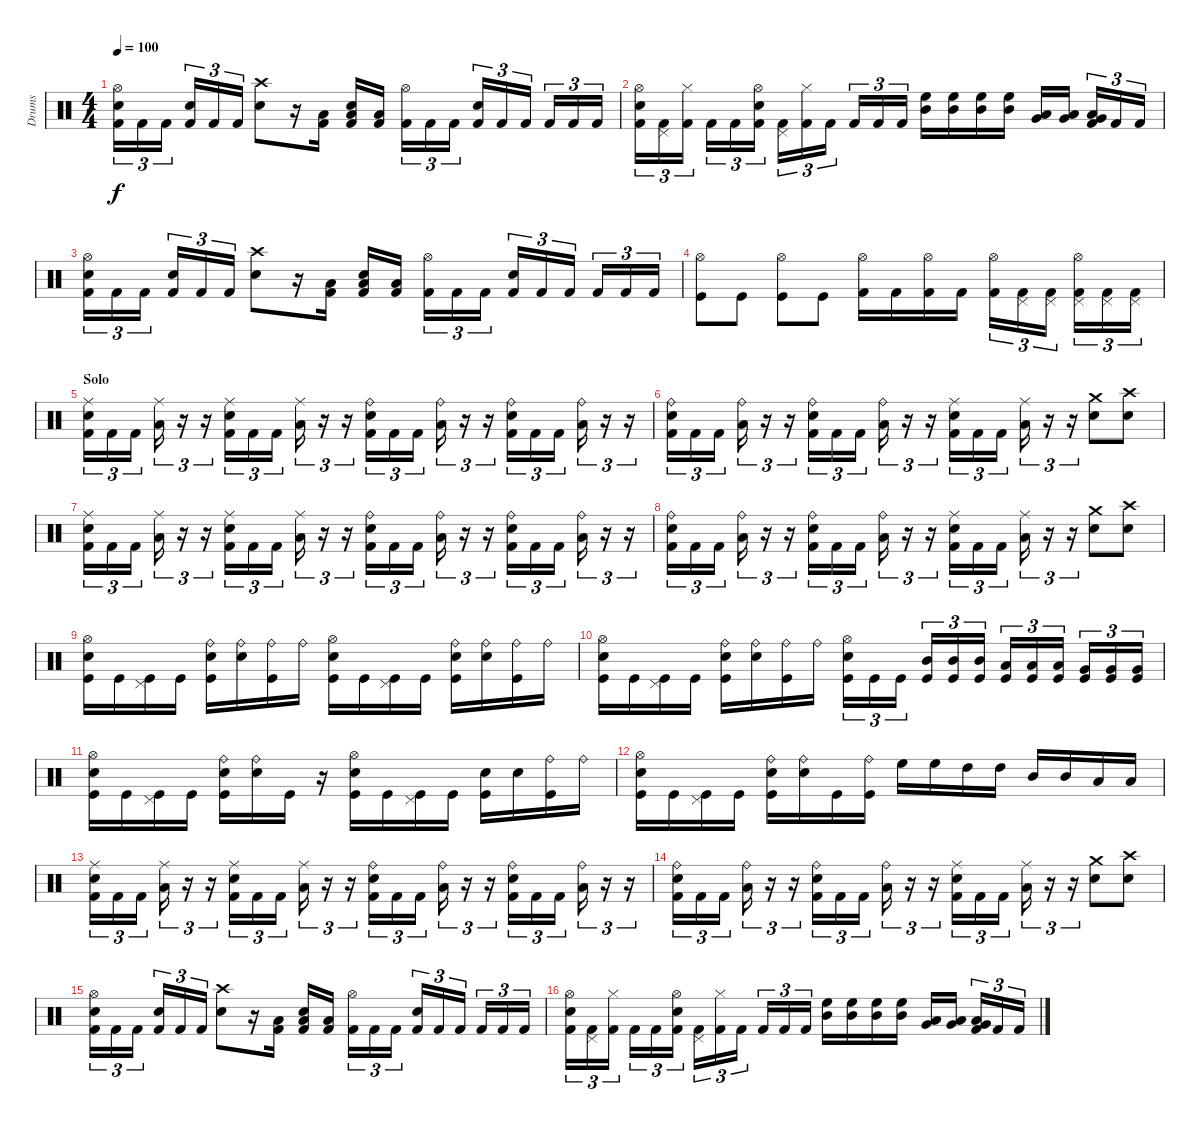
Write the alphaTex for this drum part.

\track ("Drums" "Drums") {instrument percussion}
\staff {score}
\articulation defaults
\ts (4 4)
\tempo 100
\clef neutral
\ks c
("Hi-Hat (open)" "Snare (hit) 2" "Kick (hit) 2").16{tu (3 2) dy f} "Kick (hit) 2".16{tu (3 2)} "Kick (hit) 2".16{tu (3 2)} ("Snare (hit) 2" "Kick (hit) 2").16{tu (3 2)} "Kick (hit) 2".16{tu (3 2)} "Kick (hit) 2".16{tu (3 2)} ("Crash high (hit)" "Snare (hit) 2").8 r.16 ("Low Tom (hit)" "Kick (hit) 2").16 ("Low Tom (hit)" "Snare (hit) 2" "Kick (hit) 2").16 ("Low Tom (hit)" "Kick (hit) 2").16 ("Hi-Hat (open)" "Kick (hit) 2").16{tu (3 2)} "Kick (hit) 2".16{tu (3 2)} "Kick (hit) 2".16{tu (3 2)} ("Snare (hit) 2" "Kick (hit) 2").16{tu (3 2)} "Kick (hit) 2".16{tu (3 2)} "Kick (hit) 2".16{tu (3 2)} "Kick (hit) 2".16{tu (3 2)} "Kick (hit) 2".16{tu (3 2)} "Kick (hit) 2".16{tu (3 2)} |
("Hi-Hat (open)" "Snare (hit) 2" "Kick (hit) 2").16{tu (3 2)} ("Pedal Hi-Hat (hit)" "Kick (hit) 2").16{tu (3 2)} ("Hi-Hat (closed)" "Kick (hit) 2").16{tu (3 2)} "Kick (hit) 2".16{tu (3 2)} "Kick (hit) 2".16{tu (3 2)} ("Hi-Hat (open)" "Snare (hit) 2" "Kick (hit) 2").16{tu (3 2)} ("Pedal Hi-Hat (hit)" "Kick (hit) 2").16{tu (3 2)} ("Hi-Hat (closed)" "Kick (hit) 2").16{tu (3 2)} "Kick (hit) 2".16{tu (3 2)} "Kick (hit) 2".16{tu (3 2)} "Kick (hit) 2".16{tu (3 2)} "Kick (hit) 2".16{tu (3 2)} ("High Floor Tom (hit)" "Mid Tom (hit)").16 ("High Floor Tom (hit)" "Mid Tom (hit)").16 ("High Floor Tom (hit)" "Mid Tom (hit)").16 ("High Floor Tom (hit)" "Mid Tom (hit)").16 ("Low Tom (hit)" "Very Low Tom (hit)").16 ("Low Tom (hit)" "Very Low Tom (hit)").16 ("Low Tom (hit)" "Very Low Tom (hit)" "Kick (hit) 2").16{tu (3 2)} "Kick (hit) 2".16{tu (3 2)} "Kick (hit) 2".16{tu (3 2)} |
("Hi-Hat (open)" "Snare (hit) 2" "Kick (hit) 2").16{tu (3 2)} "Kick (hit) 2".16{tu (3 2)} "Kick (hit) 2".16{tu (3 2)} ("Snare (hit) 2" "Kick (hit) 2").16{tu (3 2)} "Kick (hit) 2".16{tu (3 2)} "Kick (hit) 2".16{tu (3 2)} ("Crash high (hit)" "Snare (hit) 2").8 r.16 ("Low Tom (hit)" "Kick (hit) 2").16 ("Low Tom (hit)" "Snare (hit) 2" "Kick (hit) 2").16 ("Low Tom (hit)" "Kick (hit) 2").16 ("Hi-Hat (open)" "Kick (hit) 2").16{tu (3 2)} "Kick (hit) 2".16{tu (3 2)} "Kick (hit) 2".16{tu (3 2)} ("Snare (hit) 2" "Kick (hit) 2").16{tu (3 2)} "Kick (hit) 2".16{tu (3 2)} "Kick (hit) 2".16{tu (3 2)} "Kick (hit) 2".16{tu (3 2)} "Kick (hit) 2".16{tu (3 2)} "Kick (hit) 2".16{tu (3 2)} |
("Hi-Hat (open)" "Kick (hit)").8 "Kick (hit)".8 ("Hi-Hat (open)" "Kick (hit)").8 "Kick (hit)".8 ("Hi-Hat (open)" "Kick (hit) 2").16 "Kick (hit) 2".16 ("Hi-Hat (open)" "Kick (hit) 2").16 "Kick (hit) 2".16 ("Hi-Hat (open)" "Kick (hit) 2").16{tu (3 2)} ("Pedal Hi-Hat (hit)" "Kick (hit) 2").16{tu (3 2)} ("Pedal Hi-Hat (hit)" "Kick (hit) 2").16{tu (3 2)} ("Hi-Hat (open)" "Pedal Hi-Hat (hit)" "Kick (hit) 2").16{tu (3 2)} ("Pedal Hi-Hat (hit)" "Kick (hit) 2").16{tu (3 2)} ("Pedal Hi-Hat (hit)" "Kick (hit) 2").16{tu (3 2)} |
\section ("" "Solo")
("Ride (middle)" "Snare (hit) 2" "Kick (hit) 2").16{tu (3 2)} "Kick (hit) 2".16{tu (3 2)} "Kick (hit) 2".16{tu (3 2)} ("Ride (middle)" "Low Floor Tom (hit)").16{tu (3 2)} r.16{tu (3 2)} r.16{tu (3 2)} ("Ride (middle)" "Snare (hit) 2" "Kick (hit) 2").16{tu (3 2)} "Kick (hit) 2".16{tu (3 2)} "Kick (hit) 2".16{tu (3 2)} ("Ride (middle)" "Low Floor Tom (hit)").16{tu (3 2)} r.16{tu (3 2)} r.16{tu (3 2)} ("Ride (bell)" "Snare (hit) 2" "Kick (hit) 2").16{tu (3 2)} "Kick (hit) 2".16{tu (3 2)} "Kick (hit) 2".16{tu (3 2)} ("Ride (bell)" "Low Floor Tom (hit)").16{tu (3 2)} r.16{tu (3 2)} r.16{tu (3 2)} ("Ride (bell)" "Snare (hit) 2" "Kick (hit) 2").16{tu (3 2)} "Kick (hit) 2".16{tu (3 2)} "Kick (hit) 2".16{tu (3 2)} ("Ride (bell)" "Low Floor Tom (hit)").16{tu (3 2)} r.16{tu (3 2)} r.16{tu (3 2)} |
("Ride (bell)" "Snare (hit) 2" "Kick (hit) 2").16{tu (3 2)} "Kick (hit) 2".16{tu (3 2)} "Kick (hit) 2".16{tu (3 2)} ("Ride (bell)" "Low Floor Tom (hit)").16{tu (3 2)} r.16{tu (3 2)} r.16{tu (3 2)} ("Ride (bell)" "Snare (hit) 2" "Kick (hit) 2").16{tu (3 2)} "Kick (hit) 2".16{tu (3 2)} "Kick (hit) 2".16{tu (3 2)} ("Ride (bell)" "Low Floor Tom (hit)").16{tu (3 2)} r.16{tu (3 2)} r.16{tu (3 2)} ("Ride (middle)" "Snare (hit) 2" "Kick (hit) 2").16{tu (3 2)} "Kick (hit) 2".16{tu (3 2)} "Kick (hit) 2".16{tu (3 2)} ("Ride (middle)" "Low Floor Tom (hit)").16{tu (3 2)} r.16{tu (3 2)} r.16{tu (3 2)} ("Crash medium (hit)" "Snare (hit) 2").8 ("Crash high (hit)" "Snare (hit) 2").8 |
("Ride (middle)" "Snare (hit) 2" "Kick (hit) 2").16{tu (3 2)} "Kick (hit) 2".16{tu (3 2)} "Kick (hit) 2".16{tu (3 2)} ("Ride (middle)" "Low Floor Tom (hit)").16{tu (3 2)} r.16{tu (3 2)} r.16{tu (3 2)} ("Ride (middle)" "Snare (hit) 2" "Kick (hit) 2").16{tu (3 2)} "Kick (hit) 2".16{tu (3 2)} "Kick (hit) 2".16{tu (3 2)} ("Ride (middle)" "Low Floor Tom (hit)").16{tu (3 2)} r.16{tu (3 2)} r.16{tu (3 2)} ("Ride (bell)" "Snare (hit) 2" "Kick (hit) 2").16{tu (3 2)} "Kick (hit) 2".16{tu (3 2)} "Kick (hit) 2".16{tu (3 2)} ("Ride (bell)" "Low Floor Tom (hit)").16{tu (3 2)} r.16{tu (3 2)} r.16{tu (3 2)} ("Ride (bell)" "Snare (hit) 2" "Kick (hit) 2").16{tu (3 2)} "Kick (hit) 2".16{tu (3 2)} "Kick (hit) 2".16{tu (3 2)} ("Ride (bell)" "Low Floor Tom (hit)").16{tu (3 2)} r.16{tu (3 2)} r.16{tu (3 2)} |
("Ride (bell)" "Snare (hit) 2" "Kick (hit) 2").16{tu (3 2)} "Kick (hit) 2".16{tu (3 2)} "Kick (hit) 2".16{tu (3 2)} ("Ride (bell)" "Low Floor Tom (hit)").16{tu (3 2)} r.16{tu (3 2)} r.16{tu (3 2)} ("Ride (bell)" "Snare (hit) 2" "Kick (hit) 2").16{tu (3 2)} "Kick (hit) 2".16{tu (3 2)} "Kick (hit) 2".16{tu (3 2)} ("Ride (bell)" "Low Floor Tom (hit)").16{tu (3 2)} r.16{tu (3 2)} r.16{tu (3 2)} ("Ride (middle)" "Snare (hit) 2" "Kick (hit) 2").16{tu (3 2)} "Kick (hit) 2".16{tu (3 2)} "Kick (hit) 2".16{tu (3 2)} ("Ride (middle)" "Low Floor Tom (hit)").16{tu (3 2)} r.16{tu (3 2)} r.16{tu (3 2)} ("Crash medium (hit)" "Snare (hit) 2").8 ("Crash high (hit)" "Snare (hit) 2").8 |
("Hi-Hat (open)" "Snare (hit) 2" "Kick (hit)").16 "Kick (hit)".16 ("Pedal Hi-Hat (hit)" "Kick (hit)").16 "Kick (hit)".16 ("Ride (bell)" "Snare (hit) 2" "Kick (hit)").16 ("Ride (bell)" "Snare (hit) 2").16 ("Ride (bell)" "Kick (hit)").16 "Ride (bell)".16 ("Hi-Hat (open)" "Snare (hit) 2" "Kick (hit)").16 "Kick (hit)".16 ("Pedal Hi-Hat (hit)" "Kick (hit)").16 "Kick (hit)".16 ("Ride (bell)" "Snare (hit) 2" "Kick (hit)").16 ("Ride (bell)" "Snare (hit) 2").16 ("Ride (bell)" "Kick (hit)").16 "Ride (bell)".16 |
("Hi-Hat (open)" "Snare (hit) 2" "Kick (hit)").16 "Kick (hit)".16 ("Pedal Hi-Hat (hit)" "Kick (hit)").16 "Kick (hit)".16 ("Ride (bell)" "Snare (hit) 2" "Kick (hit)").16 ("Ride (bell)" "Snare (hit) 2").16 ("Ride (bell)" "Kick (hit)").16 "Ride (bell)".16 ("Hi-Hat (open)" "Snare (hit) 2" "Kick (hit)").16{tu (3 2)} "Kick (hit)".16{tu (3 2)} "Kick (hit)".16{tu (3 2)} ("Mid Tom (hit)" "Kick (hit)").16{tu (3 2)} ("Mid Tom (hit)" "Kick (hit)").16{tu (3 2)} ("Mid Tom (hit)" "Kick (hit)").16{tu (3 2)} ("Low Tom (hit)" "Kick (hit)").16{tu (3 2)} ("Low Tom (hit)" "Kick (hit)").16{tu (3 2)} ("Low Tom (hit)" "Kick (hit)").16{tu (3 2)} ("Very Low Tom (hit)" "Kick (hit)").16{tu (3 2)} ("Very Low Tom (hit)" "Kick (hit)").16{tu (3 2)} ("Very Low Tom (hit)" "Kick (hit)").16{tu (3 2)} |
("Hi-Hat (open)" "Snare (hit) 2" "Kick (hit)").16 "Kick (hit)".16 ("Pedal Hi-Hat (hit)" "Kick (hit)").16 "Kick (hit)".16 ("Ride (bell)" "Snare (hit) 2" "Kick (hit)").16 ("Ride (bell)" "Snare (hit) 2").16 "Kick (hit)".16 r.16 ("Hi-Hat (open)" "Snare (hit) 2" "Kick (hit)").16 "Kick (hit)".16 ("Pedal Hi-Hat (hit)" "Kick (hit)").16 "Kick (hit)".16 ("Snare (hit) 2" "Kick (hit)").16 "Snare (hit) 2".16 ("Ride (bell)" "Kick (hit)").16 "Ride (bell)".16 |
("Hi-Hat (open)" "Snare (hit) 2" "Kick (hit)").16 "Kick (hit)".16 ("Pedal Hi-Hat (hit)" "Kick (hit)").16 "Kick (hit)".16 ("Ride (bell)" "Snare (hit) 2" "Kick (hit)").16 ("Ride (bell)" "Snare (hit) 2").16 "Kick (hit)".16 ("Ride (bell)" "Kick (hit)").16 "High Floor Tom (hit)".16 "High Floor Tom (hit)".16 "High Tom (hit)".16 "High Tom (hit)".16 "Mid Tom (hit)".16 "Mid Tom (hit)".16 "Low Tom (hit)".16 "Low Tom (hit)".16 |
("Ride (middle)" "Snare (hit) 2" "Kick (hit) 2").16{tu (3 2)} "Kick (hit) 2".16{tu (3 2)} "Kick (hit) 2".16{tu (3 2)} ("Ride (middle)" "Low Floor Tom (hit)").16{tu (3 2)} r.16{tu (3 2)} r.16{tu (3 2)} ("Ride (middle)" "Snare (hit) 2" "Kick (hit) 2").16{tu (3 2)} "Kick (hit) 2".16{tu (3 2)} "Kick (hit) 2".16{tu (3 2)} ("Ride (middle)" "Low Floor Tom (hit)").16{tu (3 2)} r.16{tu (3 2)} r.16{tu (3 2)} ("Ride (bell)" "Snare (hit) 2" "Kick (hit) 2").16{tu (3 2)} "Kick (hit) 2".16{tu (3 2)} "Kick (hit) 2".16{tu (3 2)} ("Ride (bell)" "Low Floor Tom (hit)").16{tu (3 2)} r.16{tu (3 2)} r.16{tu (3 2)} ("Ride (bell)" "Snare (hit) 2" "Kick (hit) 2").16{tu (3 2)} "Kick (hit) 2".16{tu (3 2)} "Kick (hit) 2".16{tu (3 2)} ("Ride (bell)" "Low Floor Tom (hit)").16{tu (3 2)} r.16{tu (3 2)} r.16{tu (3 2)} |
("Ride (bell)" "Snare (hit) 2" "Kick (hit) 2").16{tu (3 2)} "Kick (hit) 2".16{tu (3 2)} "Kick (hit) 2".16{tu (3 2)} ("Ride (bell)" "Low Floor Tom (hit)").16{tu (3 2)} r.16{tu (3 2)} r.16{tu (3 2)} ("Ride (bell)" "Snare (hit) 2" "Kick (hit) 2").16{tu (3 2)} "Kick (hit) 2".16{tu (3 2)} "Kick (hit) 2".16{tu (3 2)} ("Ride (bell)" "Low Floor Tom (hit)").16{tu (3 2)} r.16{tu (3 2)} r.16{tu (3 2)} ("Ride (middle)" "Snare (hit) 2" "Kick (hit) 2").16{tu (3 2)} "Kick (hit) 2".16{tu (3 2)} "Kick (hit) 2".16{tu (3 2)} ("Ride (middle)" "Low Floor Tom (hit)").16{tu (3 2)} r.16{tu (3 2)} r.16{tu (3 2)} ("Crash medium (hit)" "Snare (hit) 2").8 ("Crash high (hit)" "Snare (hit) 2").8 |
("Hi-Hat (open)" "Snare (hit) 2" "Kick (hit) 2").16{tu (3 2)} "Kick (hit) 2".16{tu (3 2)} "Kick (hit) 2".16{tu (3 2)} ("Snare (hit) 2" "Kick (hit) 2").16{tu (3 2)} "Kick (hit) 2".16{tu (3 2)} "Kick (hit) 2".16{tu (3 2)} ("Crash high (hit)" "Snare (hit) 2").8 r.16 ("Low Tom (hit)" "Kick (hit) 2").16 ("Low Tom (hit)" "Snare (hit) 2" "Kick (hit) 2").16 ("Low Tom (hit)" "Kick (hit) 2").16 ("Hi-Hat (open)" "Kick (hit) 2").16{tu (3 2)} "Kick (hit) 2".16{tu (3 2)} "Kick (hit) 2".16{tu (3 2)} ("Snare (hit) 2" "Kick (hit) 2").16{tu (3 2)} "Kick (hit) 2".16{tu (3 2)} "Kick (hit) 2".16{tu (3 2)} "Kick (hit) 2".16{tu (3 2)} "Kick (hit) 2".16{tu (3 2)} "Kick (hit) 2".16{tu (3 2)} |
("Hi-Hat (open)" "Snare (hit) 2" "Kick (hit) 2").16{tu (3 2)} ("Pedal Hi-Hat (hit)" "Kick (hit) 2").16{tu (3 2)} ("Hi-Hat (closed)" "Kick (hit) 2").16{tu (3 2)} "Kick (hit) 2".16{tu (3 2)} "Kick (hit) 2".16{tu (3 2)} ("Hi-Hat (open)" "Snare (hit) 2" "Kick (hit) 2").16{tu (3 2)} ("Pedal Hi-Hat (hit)" "Kick (hit) 2").16{tu (3 2)} ("Hi-Hat (closed)" "Kick (hit) 2").16{tu (3 2)} "Kick (hit) 2".16{tu (3 2)} "Kick (hit) 2".16{tu (3 2)} "Kick (hit) 2".16{tu (3 2)} "Kick (hit) 2".16{tu (3 2)} ("High Floor Tom (hit)" "Mid Tom (hit)").16 ("High Floor Tom (hit)" "Mid Tom (hit)").16 ("High Floor Tom (hit)" "Mid Tom (hit)").16 ("High Floor Tom (hit)" "Mid Tom (hit)").16 ("Low Tom (hit)" "Very Low Tom (hit)").16 ("Low Tom (hit)" "Very Low Tom (hit)").16 ("Low Tom (hit)" "Very Low Tom (hit)" "Kick (hit) 2").16{tu (3 2)} "Kick (hit) 2".16{tu (3 2)} "Kick (hit) 2".16{tu (3 2)}
